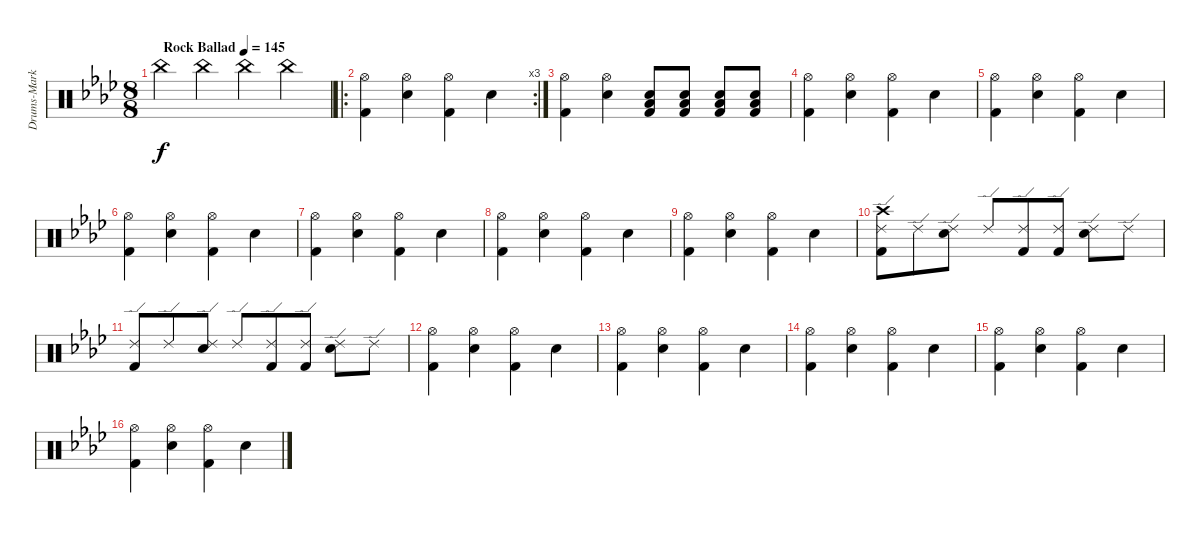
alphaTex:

\track ("Drums-Marky" "Drums-Mark") {instrument percussion}
\staff {score}
\articulation defaults
\ts (8 8)
\tempo (145 "Rock Ballad")
\clef neutral
\ks ab "China (hit)".4{dy f} "China (hit)".4 "China (hit)".4 "China (hit)".4
|
\ro
\rc 3
("Hi-Hat (open)" "Kick (hit) 2").4 ("Hi-Hat (open)" "Snare (hit) 2").4 ("Hi-Hat (open)" "Kick (hit) 2").4 "Snare (hit) 2".4 |
("Hi-Hat (open)" "Kick (hit) 2").4 ("Hi-Hat (open)" "Snare (hit) 2").4 ("Low Floor Tom (hit)" "Snare (hit) 2" "Kick (hit) 2").8 ("Low Floor Tom (hit)" "Snare (hit) 2" "Kick (hit) 2").8 ("Low Floor Tom (hit)" "Snare (hit) 2" "Kick (hit) 2").8 ("Low Floor Tom (hit)" "Snare (hit) 2" "Kick (hit) 2").8 |
("Hi-Hat (open)" "Kick (hit) 2").4 ("Hi-Hat (open)" "Snare (hit) 2").4 ("Hi-Hat (open)" "Kick (hit) 2").4 "Snare (hit) 2".4 |
("Hi-Hat (open)" "Kick (hit) 2").4 ("Hi-Hat (open)" "Snare (hit) 2").4 ("Hi-Hat (open)" "Kick (hit) 2").4 "Snare (hit) 2".4 |
("Hi-Hat (open)" "Kick (hit) 2").4 ("Hi-Hat (open)" "Snare (hit) 2").4 ("Hi-Hat (open)" "Kick (hit) 2").4 "Snare (hit) 2".4 |
("Hi-Hat (open)" "Kick (hit) 2").4 ("Hi-Hat (open)" "Snare (hit) 2").4 ("Hi-Hat (open)" "Kick (hit) 2").4 "Snare (hit) 2".4 |
("Hi-Hat (open)" "Kick (hit) 2").4 ("Hi-Hat (open)" "Snare (hit) 2").4 ("Hi-Hat (open)" "Kick (hit) 2").4 "Snare (hit) 2".4 |
("Hi-Hat (open)" "Kick (hit) 2").4 ("Hi-Hat (open)" "Snare (hit) 2").4 ("Hi-Hat (open)" "Kick (hit) 2").4 "Snare (hit) 2".4 |
("Ride (edge) 2" "Kick (hit) 2" "Crash high (hit)").8 "Ride (edge) 2".8 ("Ride (edge) 2" "Snare (hit) 2").8 "Ride (edge) 2".8 ("Ride (edge) 2" "Kick (hit) 2").8 ("Ride (edge) 2" "Kick (hit) 2").8 ("Ride (edge) 2" "Snare (hit) 2").8 "Ride (edge) 2".8 |
("Ride (edge) 2" "Kick (hit) 2").8 "Ride (edge) 2".8 ("Ride (edge) 2" "Snare (hit) 2").8 "Ride (edge) 2".8 ("Ride (edge) 2" "Kick (hit) 2").8 ("Ride (edge) 2" "Kick (hit) 2").8 ("Ride (edge) 2" "Snare (hit) 2").8 "Ride (edge) 2".8 |
("Hi-Hat (open)" "Kick (hit) 2").4 ("Hi-Hat (open)" "Snare (hit) 2").4 ("Hi-Hat (open)" "Kick (hit) 2").4 "Snare (hit) 2".4 |
("Hi-Hat (open)" "Kick (hit) 2").4 ("Hi-Hat (open)" "Snare (hit) 2").4 ("Hi-Hat (open)" "Kick (hit) 2").4 "Snare (hit) 2".4 |
("Hi-Hat (open)" "Kick (hit) 2").4 ("Hi-Hat (open)" "Snare (hit) 2").4 ("Hi-Hat (open)" "Kick (hit) 2").4 "Snare (hit) 2".4 |
("Hi-Hat (open)" "Kick (hit) 2").4 ("Hi-Hat (open)" "Snare (hit) 2").4 ("Hi-Hat (open)" "Kick (hit) 2").4 "Snare (hit) 2".4 |
("Hi-Hat (open)" "Kick (hit) 2").4 ("Hi-Hat (open)" "Snare (hit) 2").4 ("Hi-Hat (open)" "Kick (hit) 2").4 "Snare (hit) 2".4
